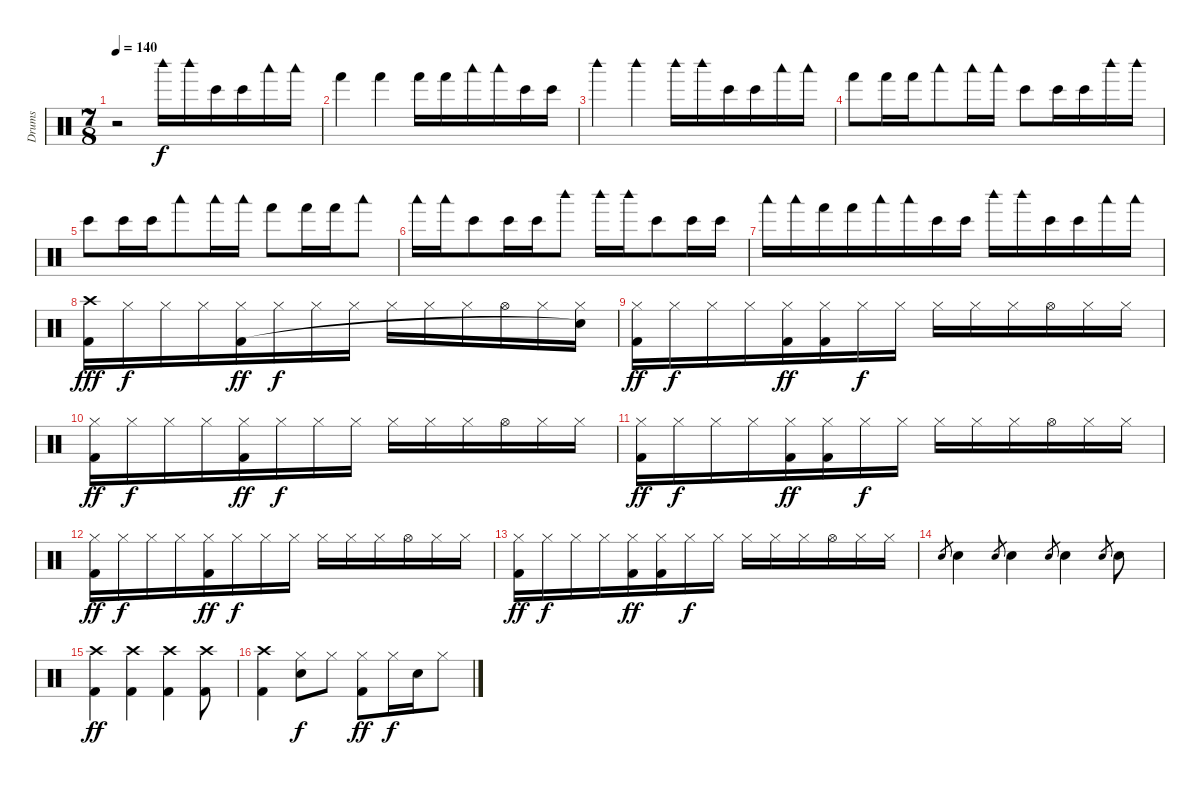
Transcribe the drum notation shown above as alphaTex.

\track ("Drums" "Drums") {instrument percussion}
\staff {score}
\articulation defaults
\ts (7 8)
\tempo 140
\clef neutral
\ks c
r.2{dy fff} "Woodblock high (hit)".16{dy f} "Woodblock high (hit)".16 "Bongo High (hit)".16 "Bongo High (hit)".16 "Woodblock low (hit)".16 "Woodblock low (hit)".16 |
"Hand (hit)".4 "Hand (hit)".4 "Hand (hit)".16 "Hand (hit)".16 "Woodblock low (hit)".16 "Woodblock low (hit)".16 "Bongo High (hit)".16 "Bongo High (hit)".16 |
"Woodblock high (hit)".4 "Woodblock high (hit)".4 "Woodblock high (hit)".16 "Woodblock high (hit)".16 "Bongo High (hit)".16 "Bongo High (hit)".16 "Woodblock low (hit)".16 "Woodblock low (hit)".16 |
"Hand (hit)".8 "Hand (hit)".16 "Hand (hit)".16 "Woodblock low (hit)".8 "Woodblock low (hit)".16 "Woodblock low (hit)".16 "Bongo High (hit)".8 "Bongo High (hit)".16 "Bongo High (hit)".16 "Woodblock high (hit)".16 "Woodblock high (hit)".16 |
"Bongo High (hit)".8 "Bongo High (hit)".16 "Bongo High (hit)".16 "Woodblock low (hit)".8 "Woodblock low (hit)".16 "Woodblock low (hit)".16 "Hand (hit)".8 "Hand (hit)".16 "Hand (hit)".16 "Woodblock low (hit)".8 |
"Woodblock low (hit)".16 "Woodblock low (hit)".16 "Bongo High (hit)".8 "Bongo High (hit)".16 "Bongo High (hit)".16 "Woodblock high (hit)".8 "Woodblock high (hit)".16 "Woodblock high (hit)".16 "Bongo High (hit)".8 "Bongo High (hit)".16 "Bongo High (hit)".16 |
"Woodblock low (hit)".16 "Woodblock low (hit)".16 "Hand (hit)".16 "Hand (hit)".16 "Woodblock low (hit)".16 "Woodblock low (hit)".16 "Bongo High (hit)".16 "Bongo High (hit)".16 "Woodblock high (hit)".16 "Woodblock high (hit)".16 "Bongo High (hit)".16 "Bongo High (hit)".16 "Woodblock low (hit)".16 "Woodblock low (hit)".16 |
("Kick (hit) 2" "Crash high (hit)").16{dy fff} "Hi-Hat (closed)".16{dy f} "Hi-Hat (closed)".16 "Hi-Hat (closed)".16 ("Hi-Hat (closed)" "Kick (hit) 2").16{dy ff} "Hi-Hat (closed)".16{dy f} "Hi-Hat (closed)".16 "Hi-Hat (closed)".16 "Hi-Hat (closed)".16 "Hi-Hat (closed)".16 "Hi-Hat (closed)".16 "Hi-Hat (open)".16 "Hi-Hat (closed)".16 ("Hi-Hat (closed)" "Snare (hit)"{t}).16 |
("Hi-Hat (closed)" "Kick (hit) 2").16{dy ff} "Hi-Hat (closed)".16{dy f} "Hi-Hat (closed)".16 "Hi-Hat (closed)".16 ("Hi-Hat (closed)" "Kick (hit) 2").16{dy ff} ("Hi-Hat (closed)" "Kick (hit) 2").16 "Hi-Hat (closed)".16{dy f} "Hi-Hat (closed)".16 "Hi-Hat (closed)".16 "Hi-Hat (closed)".16 "Hi-Hat (closed)".16 "Hi-Hat (open)".16 "Hi-Hat (closed)".16 "Hi-Hat (closed)".16 |
("Hi-Hat (closed)" "Kick (hit) 2").16{dy ff} "Hi-Hat (closed)".16{dy f} "Hi-Hat (closed)".16 "Hi-Hat (closed)".16 ("Hi-Hat (closed)" "Kick (hit) 2").16{dy ff} "Hi-Hat (closed)".16{dy f} "Hi-Hat (closed)".16 "Hi-Hat (closed)".16 "Hi-Hat (closed)".16 "Hi-Hat (closed)".16 "Hi-Hat (closed)".16 "Hi-Hat (open)".16 "Hi-Hat (closed)".16 "Hi-Hat (closed)".16 |
("Hi-Hat (closed)" "Kick (hit) 2").16{dy ff} "Hi-Hat (closed)".16{dy f} "Hi-Hat (closed)".16 "Hi-Hat (closed)".16 ("Hi-Hat (closed)" "Kick (hit) 2").16{dy ff} ("Hi-Hat (closed)" "Kick (hit) 2").16 "Hi-Hat (closed)".16{dy f} "Hi-Hat (closed)".16 "Hi-Hat (closed)".16 "Hi-Hat (closed)".16 "Hi-Hat (closed)".16 "Hi-Hat (open)".16 "Hi-Hat (closed)".16 "Hi-Hat (closed)".16 |
("Hi-Hat (closed)" "Kick (hit) 2").16{dy ff} "Hi-Hat (closed)".16{dy f} "Hi-Hat (closed)".16 "Hi-Hat (closed)".16 ("Hi-Hat (closed)" "Kick (hit) 2").16{dy ff} "Hi-Hat (closed)".16{dy f} "Hi-Hat (closed)".16 "Hi-Hat (closed)".16 "Hi-Hat (closed)".16 "Hi-Hat (closed)".16 "Hi-Hat (closed)".16 "Hi-Hat (open)".16 "Hi-Hat (closed)".16 "Hi-Hat (closed)".16 |
("Hi-Hat (closed)" "Kick (hit) 2").16{dy ff} "Hi-Hat (closed)".16{dy f} "Hi-Hat (closed)".16 "Hi-Hat (closed)".16 ("Hi-Hat (closed)" "Kick (hit) 2").16{dy ff} ("Hi-Hat (closed)" "Kick (hit) 2").16 "Hi-Hat (closed)".16{dy f} "Hi-Hat (closed)".16 "Hi-Hat (closed)".16 "Hi-Hat (closed)".16 "Hi-Hat (closed)".16 "Hi-Hat (open)".16 "Hi-Hat (closed)".16 "Hi-Hat (closed)".16 |
"Snare (hit) 2".8{gr} "Snare (hit) 2".4 "Snare (hit) 2".8{gr} "Snare (hit) 2".4 "Snare (hit) 2".8{gr} "Snare (hit) 2".4 "Snare (hit) 2".8{gr} "Snare (hit) 2".8 |
("Crash high (hit)" "Kick (hit) 2").4{dy ff} ("Crash high (hit)" "Kick (hit) 2").4 ("Crash high (hit)" "Kick (hit) 2").4 ("Crash high (hit)" "Kick (hit) 2").8 |
("Crash high (hit)" "Kick (hit) 2").4 ("Hi-Hat (closed)" "Snare (hit) 2").8{dy f} "Hi-Hat (closed)".8 ("Hi-Hat (closed)" "Kick (hit) 2").8{dy ff} "Hi-Hat (closed)".16{dy f} "Snare (hit) 2".16 "Hi-Hat (closed)".8
